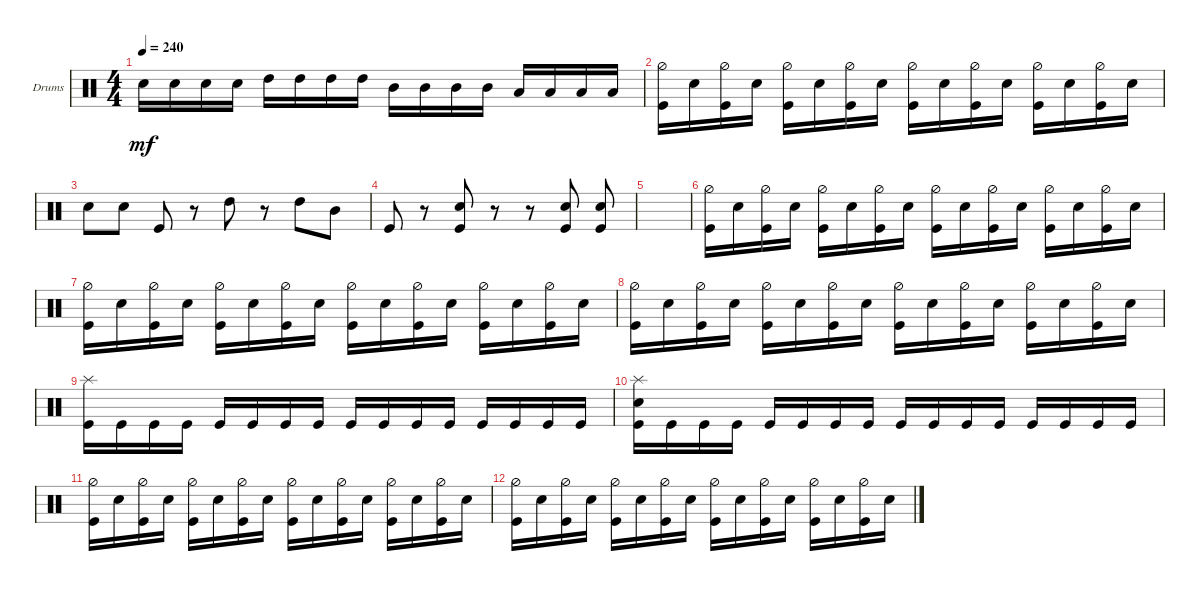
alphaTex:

\defaultSystemsLayout 4
\bracketExtendMode groupsimilarinstruments
\firstSystemTrackNameOrientation horizontal
\otherSystemsTrackNameOrientation horizontal
\track ("Drumkit" "Drums") {instrument percussion}
\staff {score}
\articulation defaults
\ts (4 4)
\tempo 240
\clef neutral
\ks c "Snare (hit) 2".16{dy mf} "Snare (hit) 2".16 "Snare (hit) 2".16 "Snare (hit) 2".16 "High Tom (hit)".16 "High Tom (hit)".16 "High Tom (hit)".16 "High Tom (hit)".16 "Mid Tom (hit)".16 "Mid Tom (hit)".16 "Mid Tom (hit)".16 "Mid Tom (hit)".16 "Low Tom (hit)".16 "Low Tom (hit)".16 "Low Tom (hit)".16 "Low Tom (hit)".16
|
("Hi-Hat (half)" "Kick (hit)").16 "Snare (hit) 2".16 ("Hi-Hat (half)" "Kick (hit)").16 "Snare (hit) 2".16 ("Hi-Hat (half)" "Kick (hit)").16 "Snare (hit) 2".16 ("Hi-Hat (half)" "Kick (hit)").16 "Snare (hit) 2".16 ("Hi-Hat (half)" "Kick (hit)").16 "Snare (hit) 2".16 ("Hi-Hat (half)" "Kick (hit)").16 "Snare (hit) 2".16 ("Hi-Hat (half)" "Kick (hit)").16 "Snare (hit) 2".16 ("Hi-Hat (half)" "Kick (hit)").16 "Snare (hit) 2".16 |
"Snare (hit) 2".8 "Snare (hit) 2".8 "Kick (hit)".8 r.8 "High Tom (hit)".8 r.8 "High Tom (hit)".8 "Mid Tom (hit)".8 |
"Kick (hit)".8 r.8 ("Snare (hit) 2" "Kick (hit)").8 r.8 r.8 ("Kick (hit)" "Snare (hit) 2").8 ("Kick (hit)" "Snare (hit) 2").8 |
|
("Hi-Hat (half)" "Kick (hit)").16 "Snare (hit) 2".16 ("Hi-Hat (half)" "Kick (hit)").16 "Snare (hit) 2".16 ("Hi-Hat (half)" "Kick (hit)").16 "Snare (hit) 2".16 ("Hi-Hat (half)" "Kick (hit)").16 "Snare (hit) 2".16 ("Hi-Hat (half)" "Kick (hit)").16 "Snare (hit) 2".16 ("Hi-Hat (half)" "Kick (hit)").16 "Snare (hit) 2".16 ("Hi-Hat (half)" "Kick (hit)").16 "Snare (hit) 2".16 ("Hi-Hat (half)" "Kick (hit)").16 "Snare (hit) 2".16 |
("Hi-Hat (half)" "Kick (hit)").16 "Snare (hit) 2".16 ("Hi-Hat (half)" "Kick (hit)").16 "Snare (hit) 2".16 ("Hi-Hat (half)" "Kick (hit)").16 "Snare (hit) 2".16 ("Hi-Hat (half)" "Kick (hit)").16 "Snare (hit) 2".16 ("Hi-Hat (half)" "Kick (hit)").16 "Snare (hit) 2".16 ("Hi-Hat (half)" "Kick (hit)").16 "Snare (hit) 2".16 ("Hi-Hat (half)" "Kick (hit)").16 "Snare (hit) 2".16 ("Hi-Hat (half)" "Kick (hit)").16 "Snare (hit) 2".16 |
("Hi-Hat (half)" "Kick (hit)").16 "Snare (hit) 2".16 ("Hi-Hat (half)" "Kick (hit)").16 "Snare (hit) 2".16 ("Hi-Hat (half)" "Kick (hit)").16 "Snare (hit) 2".16 ("Hi-Hat (half)" "Kick (hit)").16 "Snare (hit) 2".16 ("Hi-Hat (half)" "Kick (hit)").16 "Snare (hit) 2".16 ("Hi-Hat (half)" "Kick (hit)").16 "Snare (hit) 2".16 ("Hi-Hat (half)" "Kick (hit)").16 "Snare (hit) 2".16 ("Hi-Hat (half)" "Kick (hit)").16 "Snare (hit) 2".16 |
("Kick (hit)" "Splash (hit)").16 "Kick (hit)".16 "Kick (hit)".16 "Kick (hit)".16 "Kick (hit)".16 "Kick (hit)".16 "Kick (hit)".16 "Kick (hit)".16 "Kick (hit)".16 "Kick (hit)".16 "Kick (hit)".16 "Kick (hit)".16 "Kick (hit)".16 "Kick (hit)".16 "Kick (hit)".16 "Kick (hit)".16 |
("Kick (hit)" "Splash (hit)" "Snare (hit) 2").16 "Kick (hit)".16 "Kick (hit)".16 "Kick (hit)".16 "Kick (hit)".16 "Kick (hit)".16 "Kick (hit)".16 "Kick (hit)".16 "Kick (hit)".16 "Kick (hit)".16 "Kick (hit)".16 "Kick (hit)".16 "Kick (hit)".16 "Kick (hit)".16 "Kick (hit)".16 "Kick (hit)".16 |
("Hi-Hat (half)" "Kick (hit)").16 "Snare (hit) 2".16 ("Hi-Hat (half)" "Kick (hit)").16 "Snare (hit) 2".16 ("Hi-Hat (half)" "Kick (hit)").16 "Snare (hit) 2".16 ("Hi-Hat (half)" "Kick (hit)").16 "Snare (hit) 2".16 ("Hi-Hat (half)" "Kick (hit)").16 "Snare (hit) 2".16 ("Hi-Hat (half)" "Kick (hit)").16 "Snare (hit) 2".16 ("Hi-Hat (half)" "Kick (hit)").16 "Snare (hit) 2".16 ("Hi-Hat (half)" "Kick (hit)").16 "Snare (hit) 2".16 |
("Hi-Hat (half)" "Kick (hit)").16 "Snare (hit) 2".16 ("Hi-Hat (half)" "Kick (hit)").16 "Snare (hit) 2".16 ("Hi-Hat (half)" "Kick (hit)").16 "Snare (hit) 2".16 ("Hi-Hat (half)" "Kick (hit)").16 "Snare (hit) 2".16 ("Hi-Hat (half)" "Kick (hit)").16 "Snare (hit) 2".16 ("Hi-Hat (half)" "Kick (hit)").16 "Snare (hit) 2".16 ("Hi-Hat (half)" "Kick (hit)").16 "Snare (hit) 2".16 ("Hi-Hat (half)" "Kick (hit)").16 "Snare (hit) 2".16
